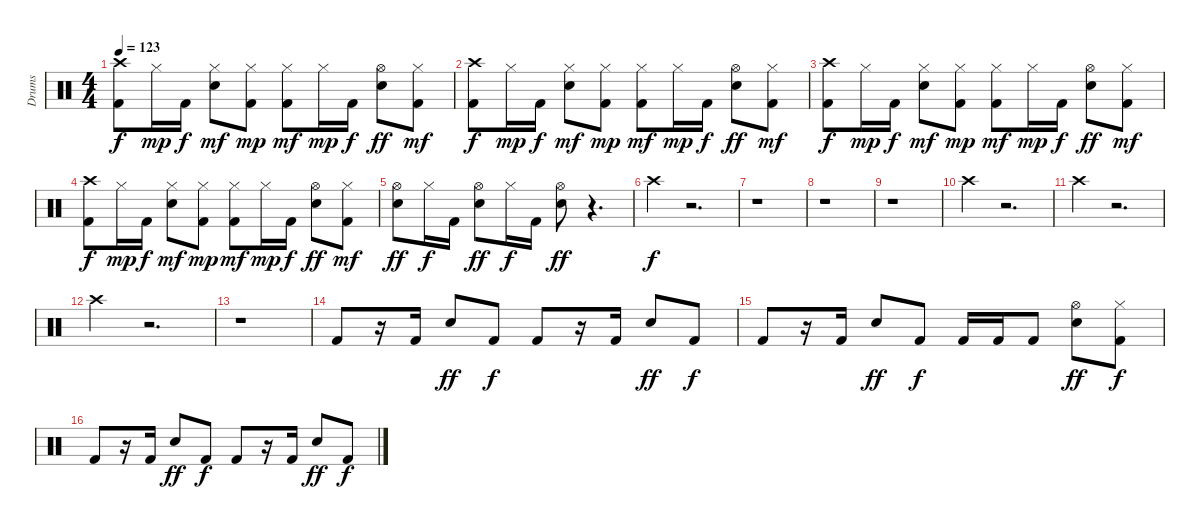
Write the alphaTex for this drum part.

\track ("Drums" "Drums") {instrument percussion}
\staff {score}
\articulation defaults
\ts (4 4)
\tempo 123
\clef neutral
\ks c
("Kick (hit) 2" "Crash high (hit)").8{dy f} "Hi-Hat (closed)".16{dy mp} "Kick (hit) 2".16{dy f} ("Snare (hit) 2" "Hi-Hat (closed)").8{dy mf} ("Kick (hit) 2" "Hi-Hat (closed)").8{dy mp} ("Kick (hit) 2" "Hi-Hat (closed)").8{dy mf} "Hi-Hat (closed)".16{dy mp} "Kick (hit) 2".16{dy f} ("Snare (hit) 2" "Hi-Hat (open)").8{dy ff} ("Kick (hit) 2" "Hi-Hat (closed)").8{dy mf} |
("Kick (hit) 2" "Crash high (hit)").8{dy f} "Hi-Hat (closed)".16{dy mp} "Kick (hit) 2".16{dy f} ("Snare (hit) 2" "Hi-Hat (closed)").8{dy mf} ("Kick (hit) 2" "Hi-Hat (closed)").8{dy mp} ("Kick (hit) 2" "Hi-Hat (closed)").8{dy mf} "Hi-Hat (closed)".16{dy mp} "Kick (hit) 2".16{dy f} ("Snare (hit) 2" "Hi-Hat (open)").8{dy ff} ("Kick (hit) 2" "Hi-Hat (closed)").8{dy mf} |
("Kick (hit) 2" "Crash high (hit)").8{dy f} "Hi-Hat (closed)".16{dy mp} "Kick (hit) 2".16{dy f} ("Snare (hit) 2" "Hi-Hat (closed)").8{dy mf} ("Kick (hit) 2" "Hi-Hat (closed)").8{dy mp} ("Kick (hit) 2" "Hi-Hat (closed)").8{dy mf} "Hi-Hat (closed)".16{dy mp} "Kick (hit) 2".16{dy f} ("Snare (hit) 2" "Hi-Hat (open)").8{dy ff} ("Kick (hit) 2" "Hi-Hat (closed)").8{dy mf} |
("Kick (hit) 2" "Crash high (hit)").8{dy f} "Hi-Hat (closed)".16{dy mp} "Kick (hit) 2".16{dy f} ("Snare (hit) 2" "Hi-Hat (closed)").8{dy mf} ("Kick (hit) 2" "Hi-Hat (closed)").8{dy mp} ("Kick (hit) 2" "Hi-Hat (closed)").8{dy mf} "Hi-Hat (closed)".16{dy mp} "Kick (hit) 2".16{dy f} ("Snare (hit) 2" "Hi-Hat (open)").8{dy ff} ("Kick (hit) 2" "Hi-Hat (closed)").8{dy mf} |
("Snare (hit) 2" "Hi-Hat (open)").8{dy ff} "Hi-Hat (closed)".16{dy f} "Kick (hit) 2".16 ("Snare (hit) 2" "Hi-Hat (open)").8{dy ff} "Hi-Hat (closed)".16{dy f} "Kick (hit) 2".16 ("Snare (hit) 2" "Hi-Hat (open)").8{dy ff} r.4{d} |
"Crash high (hit)".4{dy f} r.2{d} |
r.1 |
r.1 |
r.1 |
"Crash high (hit)".4 r.2{d} |
"Crash high (hit)".4 r.2{d} |
"Crash high (hit)".4 r.2{d} |
r.1 |
"Kick (hit) 2".8 r.16 "Kick (hit) 2".16 "Snare (hit) 2".8{dy ff} "Kick (hit) 2".8{dy f} "Kick (hit) 2".8 r.16 "Kick (hit) 2".16 "Snare (hit) 2".8{dy ff} "Kick (hit) 2".8{dy f} |
"Kick (hit) 2".8 r.16 "Kick (hit) 2".16 "Snare (hit) 2".8{dy ff} "Kick (hit) 2".8{dy f} "Kick (hit) 2".16 "Kick (hit) 2".16 "Kick (hit) 2".8 ("Snare (hit) 2" "Hi-Hat (open)").8{dy ff} ("Kick (hit) 2" "Hi-Hat (closed)").8{dy f} |
"Kick (hit) 2".8 r.16 "Kick (hit) 2".16 "Snare (hit) 2".8{dy ff} "Kick (hit) 2".8{dy f} "Kick (hit) 2".8 r.16 "Kick (hit) 2".16 "Snare (hit) 2".8{dy ff} "Kick (hit) 2".8{dy f}
